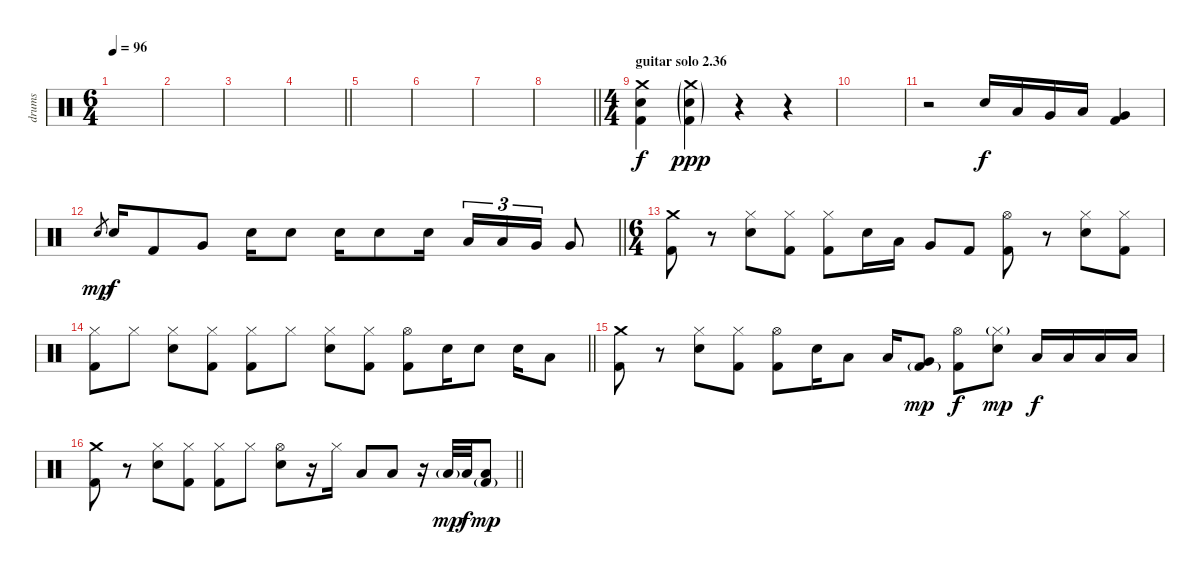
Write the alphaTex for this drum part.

\track ("drums" "drums") {instrument percussion}
\staff {score}
\articulation defaults
\ts (6 4)
\tempo 96
\clef neutral
\ks c
|
|
|
\barLineRight lightlight
|
|
|
|
\barLineRight lightlight
|
\ts (4 4)
\section ("" "guitar solo 2.36")
("Crash medium (hit)" "Electric Snare (hit)" "Kick (hit) 2").4{dy f} ("Crash medium (hit)"{g} "Electric Snare (hit)"{g} "Kick (hit) 2"{g}).4{dy ppp} r.4 r.4 |
|
r.2 "Electric Snare (hit)".16{dy f} "Low Tom (hit)".16 "Very Low Tom (hit)".16 "Low Tom (hit)".16 ("Very Low Tom (hit)" "Kick (hit) 2").4 |
\barLineRight lightlight "Electric Snare (hit)".8{gr dy mp} "Electric Snare (hit)".16{dy f} "Kick (hit) 2".8 "Very Low Tom (hit)".8 "Electric Snare (hit)".16 "Electric Snare (hit)".8 "Electric Snare (hit)".16 "Electric Snare (hit)".8 "Electric Snare (hit)".16 "Low Tom (hit)".16{tu (3 2)} "Low Tom (hit)".16{tu (3 2)} "Very Low Tom (hit)".16{tu (3 2)} "Very Low Tom (hit)".8
|
\ts (6 4)
("Crash medium (hit)" "Kick (hit) 2").8 r.8 ("Hi-Hat (closed)" "Electric Snare (hit)").8 ("Hi-Hat (closed)" "Kick (hit) 2").8 ("Hi-Hat (closed)" "Kick (hit) 2").8 "Electric Snare (hit)".16 "Low Tom (hit)".16 "Very Low Tom (hit)".8 "Kick (hit) 2".8 ("Hi-Hat (open)" "Kick (hit) 2").8 r.8 ("Hi-Hat (closed)" "Electric Snare (hit)").8 ("Hi-Hat (closed)" "Kick (hit) 2").8 |
\barLineRight lightlight
("Hi-Hat (closed)" "Kick (hit) 2").8 "Hi-Hat (closed)".8 ("Hi-Hat (closed)" "Electric Snare (hit)").8 ("Hi-Hat (closed)" "Kick (hit) 2").8 ("Hi-Hat (closed)" "Kick (hit) 2").8 "Hi-Hat (closed)".8 ("Hi-Hat (closed)" "Electric Snare (hit)").8 ("Hi-Hat (closed)" "Kick (hit) 2").8 ("Hi-Hat (open)" "Kick (hit) 2").8 "Electric Snare (hit)".16 "Electric Snare (hit)".8 "Electric Snare (hit)".16 "Low Tom (hit)".8 |
("Crash medium (hit)" "Kick (hit) 2").8 r.8 ("Hi-Hat (closed)" "Electric Snare (hit)").8 ("Hi-Hat (closed)" "Kick (hit) 2").8 ("Hi-Hat (open)" "Kick (hit) 2").8 "Electric Snare (hit)".16 "Low Tom (hit)".8 "Low Tom (hit)".16 ("Very Low Tom (hit)" "Kick (hit) 2"{g}).8{dy mp} ("Hi-Hat (open)" "Kick (hit) 2").8{dy f} ("Hi-Hat (closed)"{g} "Electric Snare (hit)").8{dy mp} "Low Tom (hit)".16{dy f} "Low Tom (hit)".16 "Low Tom (hit)".16 "Low Tom (hit)".16 |
\barLineRight lightlight
("Crash medium (hit)" "Kick (hit) 2").8 r.8 ("Hi-Hat (closed)" "Electric Snare (hit)").8 ("Hi-Hat (closed)" "Kick (hit) 2").8 ("Hi-Hat (closed)" "Kick (hit) 2").8 "Hi-Hat (closed)".8 ("Hi-Hat (open)" "Electric Snare (hit)").8 r.16 "Hi-Hat (closed)".16 "Low Tom (hit)".8 "Low Tom (hit)".8 r.16 "Low Tom (hit)"{g}.32{dy mp} "Low Tom (hit)".32{dy f} ("Low Tom (hit)" "Kick (hit) 2"{g}).8{dy mp}
